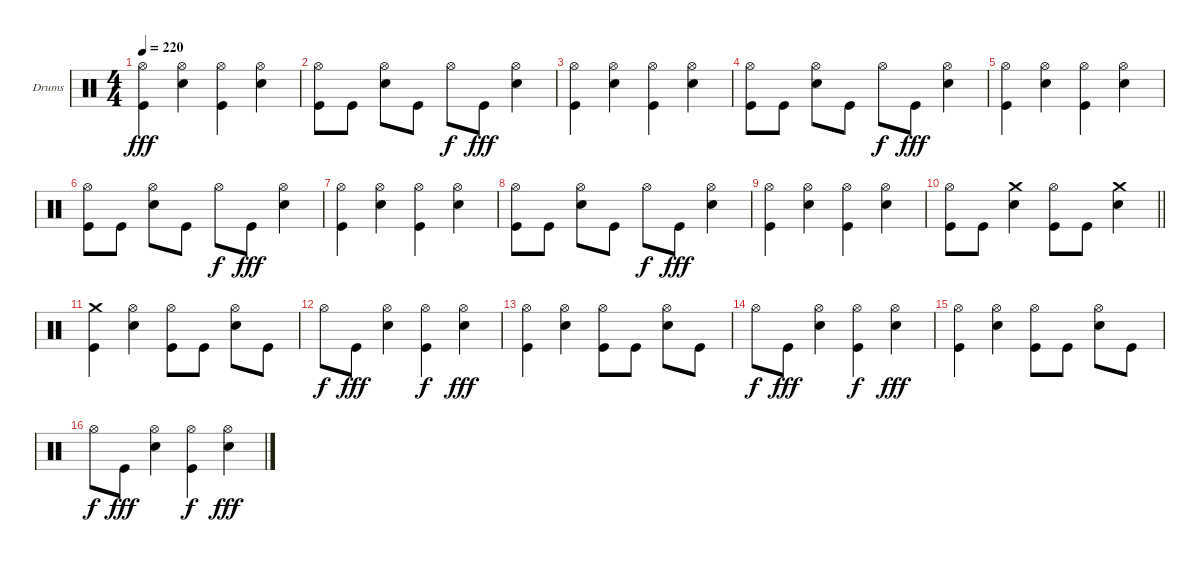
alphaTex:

\bracketExtendMode groupsimilarinstruments
\firstSystemTrackNameOrientation horizontal
\otherSystemsTrackNameOrientation horizontal
\track ("Stefan Schwarzmann" "Drums") {instrument percussion}
\staff {score}
\articulation defaults
\ts (4 4)
\tempo 220
\clef neutral
\ks c
("Kick (hit)" "Hi-Hat (open)").4{dy fff} ("Snare (hit) 2" "Hi-Hat (open)").4 ("Kick (hit)" "Hi-Hat (open)").4 ("Snare (hit) 2" "Hi-Hat (open)").4 |
("Kick (hit)" "Hi-Hat (open)").8 "Kick (hit)".8 ("Snare (hit) 2" "Hi-Hat (open)").8 "Kick (hit)".8 "Hi-Hat (open)".8{dy f} "Kick (hit)".8{dy fff} ("Snare (hit) 2" "Hi-Hat (open)").4 |
("Kick (hit)" "Hi-Hat (open)").4 ("Snare (hit) 2" "Hi-Hat (open)").4 ("Kick (hit)" "Hi-Hat (open)").4 ("Snare (hit) 2" "Hi-Hat (open)").4 |
("Kick (hit)" "Hi-Hat (open)").8 "Kick (hit)".8 ("Snare (hit) 2" "Hi-Hat (open)").8 "Kick (hit)".8 "Hi-Hat (open)".8{dy f} "Kick (hit)".8{dy fff} ("Snare (hit) 2" "Hi-Hat (open)").4 |
("Kick (hit)" "Hi-Hat (open)").4 ("Snare (hit) 2" "Hi-Hat (open)").4 ("Kick (hit)" "Hi-Hat (open)").4 ("Snare (hit) 2" "Hi-Hat (open)").4 |
("Kick (hit)" "Hi-Hat (open)").8 "Kick (hit)".8 ("Snare (hit) 2" "Hi-Hat (open)").8 "Kick (hit)".8 "Hi-Hat (open)".8{dy f} "Kick (hit)".8{dy fff} ("Snare (hit) 2" "Hi-Hat (open)").4 |
("Kick (hit)" "Hi-Hat (open)").4 ("Snare (hit) 2" "Hi-Hat (open)").4 ("Kick (hit)" "Hi-Hat (open)").4 ("Snare (hit) 2" "Hi-Hat (open)").4 |
("Kick (hit)" "Hi-Hat (open)").8 "Kick (hit)".8 ("Snare (hit) 2" "Hi-Hat (open)").8 "Kick (hit)".8 "Hi-Hat (open)".8{dy f} "Kick (hit)".8{dy fff} ("Snare (hit) 2" "Hi-Hat (open)").4 |
("Kick (hit)" "Hi-Hat (open)").4 ("Snare (hit) 2" "Hi-Hat (open)").4 ("Kick (hit)" "Hi-Hat (open)").4 ("Snare (hit) 2" "Hi-Hat (open)").4 |
\barLineRight lightlight
("Kick (hit)" "Hi-Hat (open)").8 "Kick (hit)".8 ("Snare (hit) 2" "Crash medium (hit)").4 ("Kick (hit)" "Hi-Hat (open)").8 "Kick (hit)".8 ("Snare (hit) 2" "Crash medium (hit)").4 |
("Kick (hit)" "Crash medium (hit)").4 ("Snare (hit) 2" "Hi-Hat (open)").4 ("Kick (hit)" "Hi-Hat (open)").8 "Kick (hit)".8 ("Snare (hit) 2" "Hi-Hat (open)").8 "Kick (hit)".8 |
"Hi-Hat (open)".8{dy f} "Kick (hit)".8{dy fff} ("Snare (hit) 2" "Hi-Hat (open)").4 ("Kick (hit)" "Hi-Hat (open)").4{dy f} ("Snare (hit) 2" "Hi-Hat (open)").4{dy fff} |
("Kick (hit)" "Hi-Hat (open)").4 ("Snare (hit) 2" "Hi-Hat (open)").4 ("Kick (hit)" "Hi-Hat (open)").8 "Kick (hit)".8 ("Snare (hit) 2" "Hi-Hat (open)").8 "Kick (hit)".8 |
"Hi-Hat (open)".8{dy f} "Kick (hit)".8{dy fff} ("Snare (hit) 2" "Hi-Hat (open)").4 ("Kick (hit)" "Hi-Hat (open)").4{dy f} ("Snare (hit) 2" "Hi-Hat (open)").4{dy fff} |
("Kick (hit)" "Hi-Hat (open)").4 ("Snare (hit) 2" "Hi-Hat (open)").4 ("Kick (hit)" "Hi-Hat (open)").8 "Kick (hit)".8 ("Snare (hit) 2" "Hi-Hat (open)").8 "Kick (hit)".8 |
"Hi-Hat (open)".8{dy f} "Kick (hit)".8{dy fff} ("Snare (hit) 2" "Hi-Hat (open)").4 ("Kick (hit)" "Hi-Hat (open)").4{dy f} ("Snare (hit) 2" "Hi-Hat (open)").4{dy fff}
